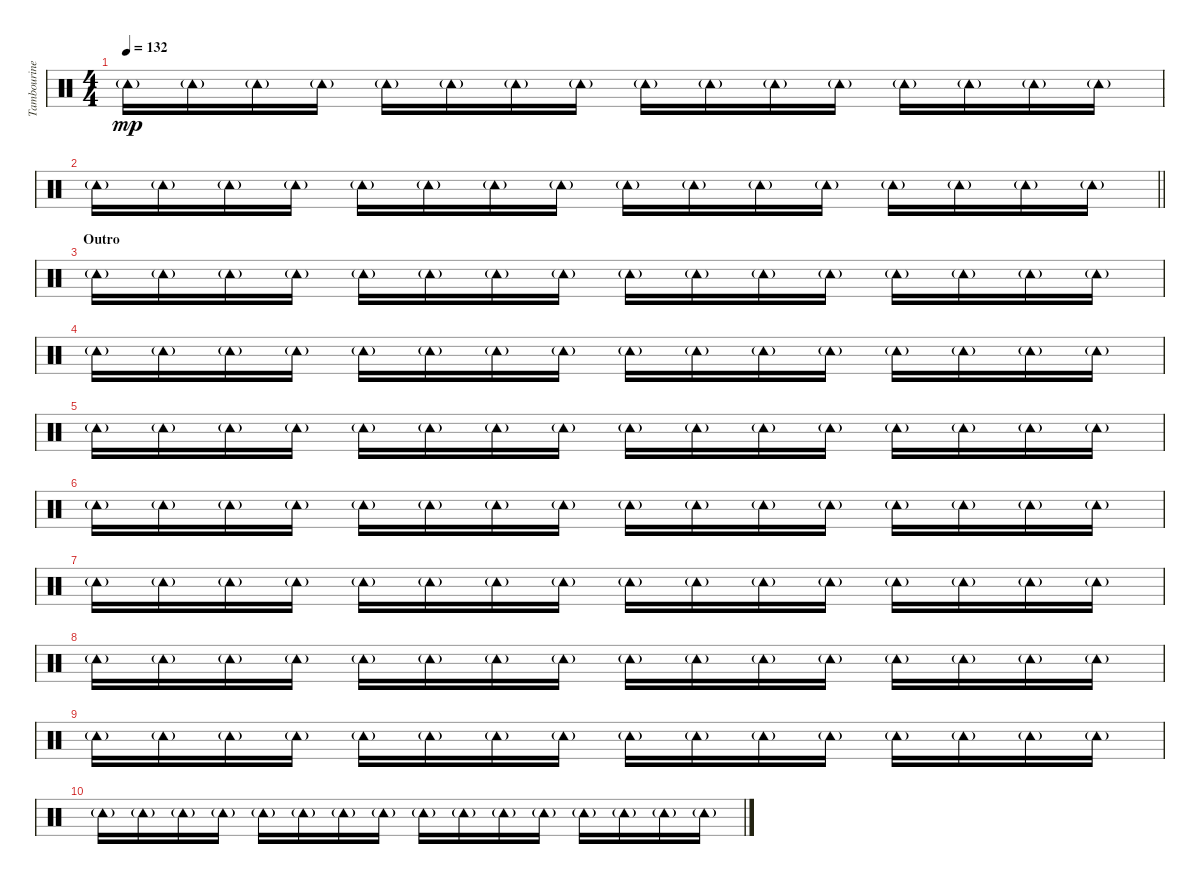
\track ("Tambourine" "Tambourine") {instrument percussion}
\staff {score}
\articulation defaults
\ts (4 4)
\tempo 132
\clef neutral
\ks c "Tambourine (hit)"{g}.16{dy mp} "Tambourine (hit)"{g}.16 "Tambourine (hit)"{g}.16 "Tambourine (hit)"{g}.16 "Tambourine (hit)"{g}.16 "Tambourine (hit)"{g}.16 "Tambourine (hit)"{g}.16 "Tambourine (hit)"{g}.16 "Tambourine (hit)"{g}.16 "Tambourine (hit)"{g}.16 "Tambourine (hit)"{g}.16 "Tambourine (hit)"{g}.16 "Tambourine (hit)"{g}.16 "Tambourine (hit)"{g}.16 "Tambourine (hit)"{g}.16 "Tambourine (hit)"{g}.16
|
\barLineRight lightlight "Tambourine (hit)"{g}.16 "Tambourine (hit)"{g}.16 "Tambourine (hit)"{g}.16 "Tambourine (hit)"{g}.16 "Tambourine (hit)"{g}.16 "Tambourine (hit)"{g}.16 "Tambourine (hit)"{g}.16 "Tambourine (hit)"{g}.16 "Tambourine (hit)"{g}.16 "Tambourine (hit)"{g}.16 "Tambourine (hit)"{g}.16 "Tambourine (hit)"{g}.16 "Tambourine (hit)"{g}.16 "Tambourine (hit)"{g}.16 "Tambourine (hit)"{g}.16 "Tambourine (hit)"{g}.16
|
\section ("" "Outro")
"Tambourine (hit)"{g}.16 "Tambourine (hit)"{g}.16 "Tambourine (hit)"{g}.16 "Tambourine (hit)"{g}.16 "Tambourine (hit)"{g}.16 "Tambourine (hit)"{g}.16 "Tambourine (hit)"{g}.16 "Tambourine (hit)"{g}.16 "Tambourine (hit)"{g}.16 "Tambourine (hit)"{g}.16 "Tambourine (hit)"{g}.16 "Tambourine (hit)"{g}.16 "Tambourine (hit)"{g}.16 "Tambourine (hit)"{g}.16 "Tambourine (hit)"{g}.16 "Tambourine (hit)"{g}.16 |
"Tambourine (hit)"{g}.16 "Tambourine (hit)"{g}.16 "Tambourine (hit)"{g}.16 "Tambourine (hit)"{g}.16 "Tambourine (hit)"{g}.16 "Tambourine (hit)"{g}.16 "Tambourine (hit)"{g}.16 "Tambourine (hit)"{g}.16 "Tambourine (hit)"{g}.16 "Tambourine (hit)"{g}.16 "Tambourine (hit)"{g}.16 "Tambourine (hit)"{g}.16 "Tambourine (hit)"{g}.16 "Tambourine (hit)"{g}.16 "Tambourine (hit)"{g}.16 "Tambourine (hit)"{g}.16 |
"Tambourine (hit)"{g}.16 "Tambourine (hit)"{g}.16 "Tambourine (hit)"{g}.16 "Tambourine (hit)"{g}.16 "Tambourine (hit)"{g}.16 "Tambourine (hit)"{g}.16 "Tambourine (hit)"{g}.16 "Tambourine (hit)"{g}.16 "Tambourine (hit)"{g}.16 "Tambourine (hit)"{g}.16 "Tambourine (hit)"{g}.16 "Tambourine (hit)"{g}.16 "Tambourine (hit)"{g}.16 "Tambourine (hit)"{g}.16 "Tambourine (hit)"{g}.16 "Tambourine (hit)"{g}.16 |
"Tambourine (hit)"{g}.16 "Tambourine (hit)"{g}.16 "Tambourine (hit)"{g}.16 "Tambourine (hit)"{g}.16 "Tambourine (hit)"{g}.16 "Tambourine (hit)"{g}.16 "Tambourine (hit)"{g}.16 "Tambourine (hit)"{g}.16 "Tambourine (hit)"{g}.16 "Tambourine (hit)"{g}.16 "Tambourine (hit)"{g}.16 "Tambourine (hit)"{g}.16 "Tambourine (hit)"{g}.16 "Tambourine (hit)"{g}.16 "Tambourine (hit)"{g}.16 "Tambourine (hit)"{g}.16 |
"Tambourine (hit)"{g}.16 "Tambourine (hit)"{g}.16 "Tambourine (hit)"{g}.16 "Tambourine (hit)"{g}.16 "Tambourine (hit)"{g}.16 "Tambourine (hit)"{g}.16 "Tambourine (hit)"{g}.16 "Tambourine (hit)"{g}.16 "Tambourine (hit)"{g}.16 "Tambourine (hit)"{g}.16 "Tambourine (hit)"{g}.16 "Tambourine (hit)"{g}.16 "Tambourine (hit)"{g}.16 "Tambourine (hit)"{g}.16 "Tambourine (hit)"{g}.16 "Tambourine (hit)"{g}.16 |
"Tambourine (hit)"{g}.16 "Tambourine (hit)"{g}.16 "Tambourine (hit)"{g}.16 "Tambourine (hit)"{g}.16 "Tambourine (hit)"{g}.16 "Tambourine (hit)"{g}.16 "Tambourine (hit)"{g}.16 "Tambourine (hit)"{g}.16 "Tambourine (hit)"{g}.16 "Tambourine (hit)"{g}.16 "Tambourine (hit)"{g}.16 "Tambourine (hit)"{g}.16 "Tambourine (hit)"{g}.16 "Tambourine (hit)"{g}.16 "Tambourine (hit)"{g}.16 "Tambourine (hit)"{g}.16 |
"Tambourine (hit)"{g}.16 "Tambourine (hit)"{g}.16 "Tambourine (hit)"{g}.16 "Tambourine (hit)"{g}.16 "Tambourine (hit)"{g}.16 "Tambourine (hit)"{g}.16 "Tambourine (hit)"{g}.16 "Tambourine (hit)"{g}.16 "Tambourine (hit)"{g}.16 "Tambourine (hit)"{g}.16 "Tambourine (hit)"{g}.16 "Tambourine (hit)"{g}.16 "Tambourine (hit)"{g}.16 "Tambourine (hit)"{g}.16 "Tambourine (hit)"{g}.16 "Tambourine (hit)"{g}.16 |
"Tambourine (hit)"{g}.16 "Tambourine (hit)"{g}.16 "Tambourine (hit)"{g}.16 "Tambourine (hit)"{g}.16 "Tambourine (hit)"{g}.16 "Tambourine (hit)"{g}.16 "Tambourine (hit)"{g}.16 "Tambourine (hit)"{g}.16 "Tambourine (hit)"{g}.16 "Tambourine (hit)"{g}.16 "Tambourine (hit)"{g}.16 "Tambourine (hit)"{g}.16 "Tambourine (hit)"{g}.16 "Tambourine (hit)"{g}.16 "Tambourine (hit)"{g}.16 "Tambourine (hit)"{g}.16
